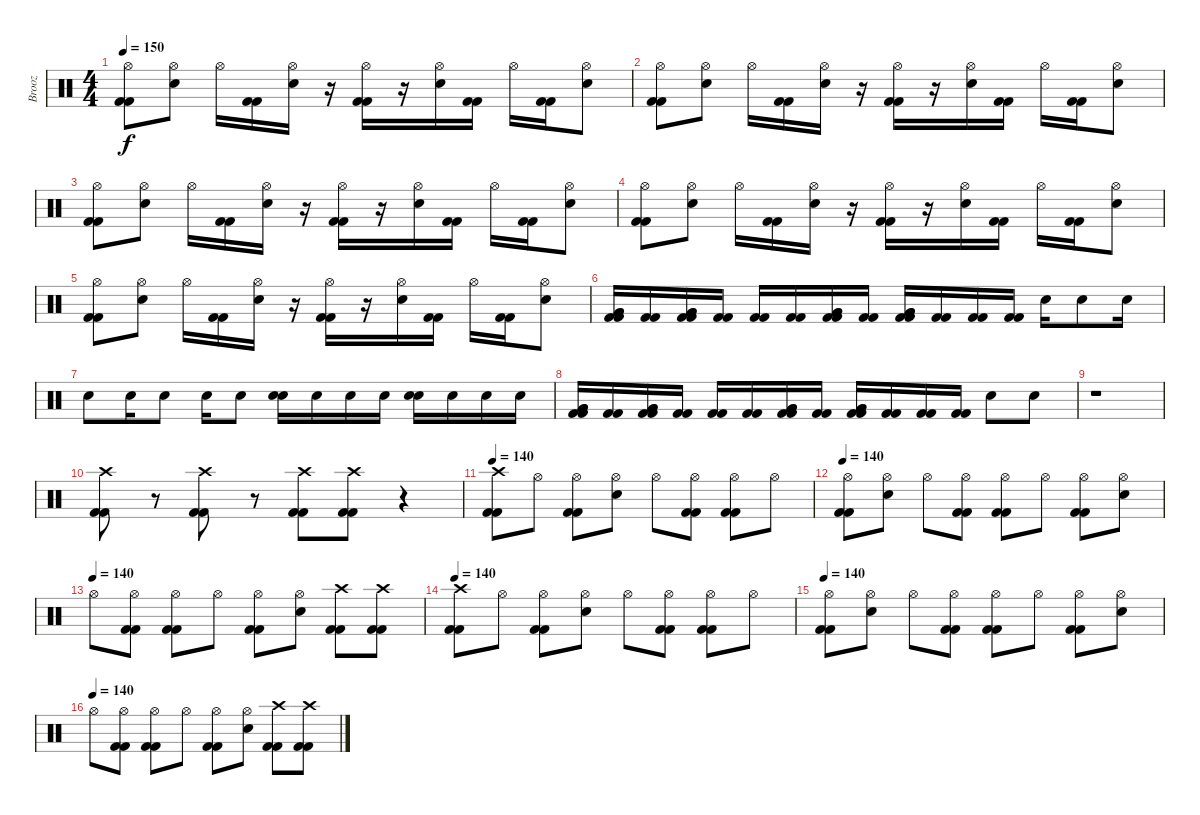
\track ("Brooz" "Brooz") {instrument percussion}
\staff {score}
\articulation defaults
\ts (4 4)
\tempo 150
\clef neutral
\ks c
("Hi-Hat (open)" "Kick (hit) 2" "Kick (hit) 2").8{dy f} ("Hi-Hat (open)" "Electric Snare (hit)").8 "Hi-Hat (open)".16 ("Kick (hit) 2" "Kick (hit) 2").16 ("Hi-Hat (open)" "Electric Snare (hit)").16 r.16 ("Hi-Hat (open)" "Kick (hit) 2" "Kick (hit) 2").16 r.16 ("Hi-Hat (open)" "Electric Snare (hit)").16 ("Kick (hit) 2" "Kick (hit) 2").16 "Hi-Hat (open)".16 ("Kick (hit) 2" "Kick (hit) 2").16 ("Hi-Hat (open)" "Electric Snare (hit)").8 |
("Hi-Hat (open)" "Kick (hit) 2" "Kick (hit) 2").8 ("Hi-Hat (open)" "Electric Snare (hit)").8 "Hi-Hat (open)".16 ("Kick (hit) 2" "Kick (hit) 2").16 ("Hi-Hat (open)" "Electric Snare (hit)").16 r.16 ("Hi-Hat (open)" "Kick (hit) 2" "Kick (hit) 2").16 r.16 ("Hi-Hat (open)" "Electric Snare (hit)").16 ("Kick (hit) 2" "Kick (hit) 2").16 "Hi-Hat (open)".16 ("Kick (hit) 2" "Kick (hit) 2").16 ("Hi-Hat (open)" "Electric Snare (hit)").8 |
("Hi-Hat (open)" "Kick (hit) 2" "Kick (hit) 2").8 ("Hi-Hat (open)" "Electric Snare (hit)").8 "Hi-Hat (open)".16 ("Kick (hit) 2" "Kick (hit) 2").16 ("Hi-Hat (open)" "Electric Snare (hit)").16 r.16 ("Hi-Hat (open)" "Kick (hit) 2" "Kick (hit) 2").16 r.16 ("Hi-Hat (open)" "Electric Snare (hit)").16 ("Kick (hit) 2" "Kick (hit) 2").16 "Hi-Hat (open)".16 ("Kick (hit) 2" "Kick (hit) 2").16 ("Hi-Hat (open)" "Electric Snare (hit)").8 |
("Hi-Hat (open)" "Kick (hit) 2" "Kick (hit) 2").8 ("Hi-Hat (open)" "Electric Snare (hit)").8 "Hi-Hat (open)".16 ("Kick (hit) 2" "Kick (hit) 2").16 ("Hi-Hat (open)" "Electric Snare (hit)").16 r.16 ("Hi-Hat (open)" "Kick (hit) 2" "Kick (hit) 2").16 r.16 ("Hi-Hat (open)" "Electric Snare (hit)").16 ("Kick (hit) 2" "Kick (hit) 2").16 "Hi-Hat (open)".16 ("Kick (hit) 2" "Kick (hit) 2").16 ("Hi-Hat (open)" "Electric Snare (hit)").8 |
("Hi-Hat (open)" "Kick (hit) 2" "Kick (hit) 2").8 ("Hi-Hat (open)" "Electric Snare (hit)").8 "Hi-Hat (open)".16 ("Kick (hit) 2" "Kick (hit) 2").16 ("Hi-Hat (open)" "Electric Snare (hit)").16 r.16 ("Hi-Hat (open)" "Kick (hit) 2" "Kick (hit) 2").16 r.16 ("Hi-Hat (open)" "Electric Snare (hit)").16 ("Kick (hit) 2" "Kick (hit) 2").16 "Hi-Hat (open)".16 ("Kick (hit) 2" "Kick (hit) 2").16 ("Hi-Hat (open)" "Electric Snare (hit)").8 |
("Very Low Tom (hit)" "Very Low Tom (hit)" "Kick (hit) 2" "Kick (hit) 2").16 ("Kick (hit) 2" "Kick (hit) 2").16 ("Very Low Tom (hit)" "Very Low Tom (hit)" "Kick (hit) 2" "Kick (hit) 2").16 ("Kick (hit) 2" "Kick (hit) 2").16 ("Kick (hit) 2" "Kick (hit) 2").16 ("Kick (hit) 2" "Kick (hit) 2").16 ("Very Low Tom (hit)" "Very Low Tom (hit)" "Kick (hit) 2" "Kick (hit) 2").16 ("Kick (hit) 2" "Kick (hit) 2").16 ("Very Low Tom (hit)" "Very Low Tom (hit)" "Kick (hit) 2" "Kick (hit) 2").16 ("Kick (hit) 2" "Kick (hit) 2").16 ("Kick (hit) 2" "Kick (hit) 2").16 ("Kick (hit) 2" "Kick (hit) 2").16 "Electric Snare (hit)".16 "Electric Snare (hit)".8 "Electric Snare (hit)".16 |
"Electric Snare (hit)".8 "Electric Snare (hit)".16 "Electric Snare (hit)".8 "Electric Snare (hit)".16 "Electric Snare (hit)".8 ("Electric Snare (hit)" "Electric Snare (hit)").16 "Electric Snare (hit)".16 "Electric Snare (hit)".16 "Electric Snare (hit)".16 ("Electric Snare (hit)" "Electric Snare (hit)").16 "Electric Snare (hit)".16 "Electric Snare (hit)".16 "Electric Snare (hit)".16 |
("Very Low Tom (hit)" "Very Low Tom (hit)" "Kick (hit) 2" "Kick (hit) 2").16 ("Kick (hit) 2" "Kick (hit) 2").16 ("Very Low Tom (hit)" "Very Low Tom (hit)" "Kick (hit) 2" "Kick (hit) 2").16 ("Kick (hit) 2" "Kick (hit) 2").16 ("Kick (hit) 2" "Kick (hit) 2").16 ("Kick (hit) 2" "Kick (hit) 2").16 ("Very Low Tom (hit)" "Very Low Tom (hit)" "Kick (hit) 2" "Kick (hit) 2").16 ("Kick (hit) 2" "Kick (hit) 2").16 ("Very Low Tom (hit)" "Very Low Tom (hit)" "Kick (hit) 2" "Kick (hit) 2").16 ("Kick (hit) 2" "Kick (hit) 2").16 ("Kick (hit) 2" "Kick (hit) 2").16 ("Kick (hit) 2" "Kick (hit) 2").16 "Electric Snare (hit)".8 "Electric Snare (hit)".8 |
r.1 |
("Crash high (hit)" "Kick (hit) 2" "Kick (hit) 2").8 r.8 ("Crash high (hit)" "Kick (hit) 2" "Kick (hit) 2").8 r.8 ("Crash high (hit)" "Kick (hit) 2" "Kick (hit) 2").8 ("Crash high (hit)" "Kick (hit) 2" "Kick (hit) 2").8 r.4 |
\tempo 140
("Crash high (hit)" "Kick (hit) 2" "Kick (hit) 2").8 "Hi-Hat (open)".8 ("Hi-Hat (open)" "Kick (hit) 2" "Kick (hit) 2").8 ("Hi-Hat (open)" "Electric Snare (hit)").8 "Hi-Hat (open)".8 ("Hi-Hat (open)" "Kick (hit) 2" "Kick (hit) 2").8 ("Hi-Hat (open)" "Kick (hit) 2" "Kick (hit) 2").8 "Hi-Hat (open)".8 |
\tempo 140
("Hi-Hat (open)" "Kick (hit) 2" "Kick (hit) 2").8 ("Hi-Hat (open)" "Electric Snare (hit)").8 "Hi-Hat (open)".8 ("Hi-Hat (open)" "Kick (hit) 2" "Kick (hit) 2").8 ("Hi-Hat (open)" "Kick (hit) 2" "Kick (hit) 2").8 "Hi-Hat (open)".8 ("Hi-Hat (open)" "Kick (hit) 2" "Kick (hit) 2").8 ("Hi-Hat (open)" "Electric Snare (hit)").8 |
\tempo (140)
"Hi-Hat (open)".8 ("Hi-Hat (open)" "Kick (hit) 2" "Kick (hit) 2").8 ("Hi-Hat (open)" "Kick (hit) 2" "Kick (hit) 2").8 "Hi-Hat (open)".8 ("Hi-Hat (open)" "Kick (hit) 2" "Kick (hit) 2").8 ("Hi-Hat (open)" "Electric Snare (hit)").8 ("Crash high (hit)" "Kick (hit) 2" "Kick (hit) 2").8 ("Crash high (hit)" "Kick (hit) 2" "Kick (hit) 2").8 |
\tempo 140
("Crash high (hit)" "Kick (hit) 2" "Kick (hit) 2").8 "Hi-Hat (open)".8 ("Hi-Hat (open)" "Kick (hit) 2" "Kick (hit) 2").8 ("Hi-Hat (open)" "Electric Snare (hit)").8 "Hi-Hat (open)".8 ("Hi-Hat (open)" "Kick (hit) 2" "Kick (hit) 2").8 ("Hi-Hat (open)" "Kick (hit) 2" "Kick (hit) 2").8 "Hi-Hat (open)".8 |
\tempo 140
("Hi-Hat (open)" "Kick (hit) 2" "Kick (hit) 2").8 ("Hi-Hat (open)" "Electric Snare (hit)").8 "Hi-Hat (open)".8 ("Hi-Hat (open)" "Kick (hit) 2" "Kick (hit) 2").8 ("Hi-Hat (open)" "Kick (hit) 2" "Kick (hit) 2").8 "Hi-Hat (open)".8 ("Hi-Hat (open)" "Kick (hit) 2" "Kick (hit) 2").8 ("Hi-Hat (open)" "Electric Snare (hit)").8 |
\tempo (140)
"Hi-Hat (open)".8 ("Hi-Hat (open)" "Kick (hit) 2" "Kick (hit) 2").8 ("Hi-Hat (open)" "Kick (hit) 2" "Kick (hit) 2").8 "Hi-Hat (open)".8 ("Hi-Hat (open)" "Kick (hit) 2" "Kick (hit) 2").8 ("Hi-Hat (open)" "Electric Snare (hit)").8 ("Crash high (hit)" "Kick (hit) 2" "Kick (hit) 2").8 ("Crash high (hit)" "Kick (hit) 2" "Kick (hit) 2").8
